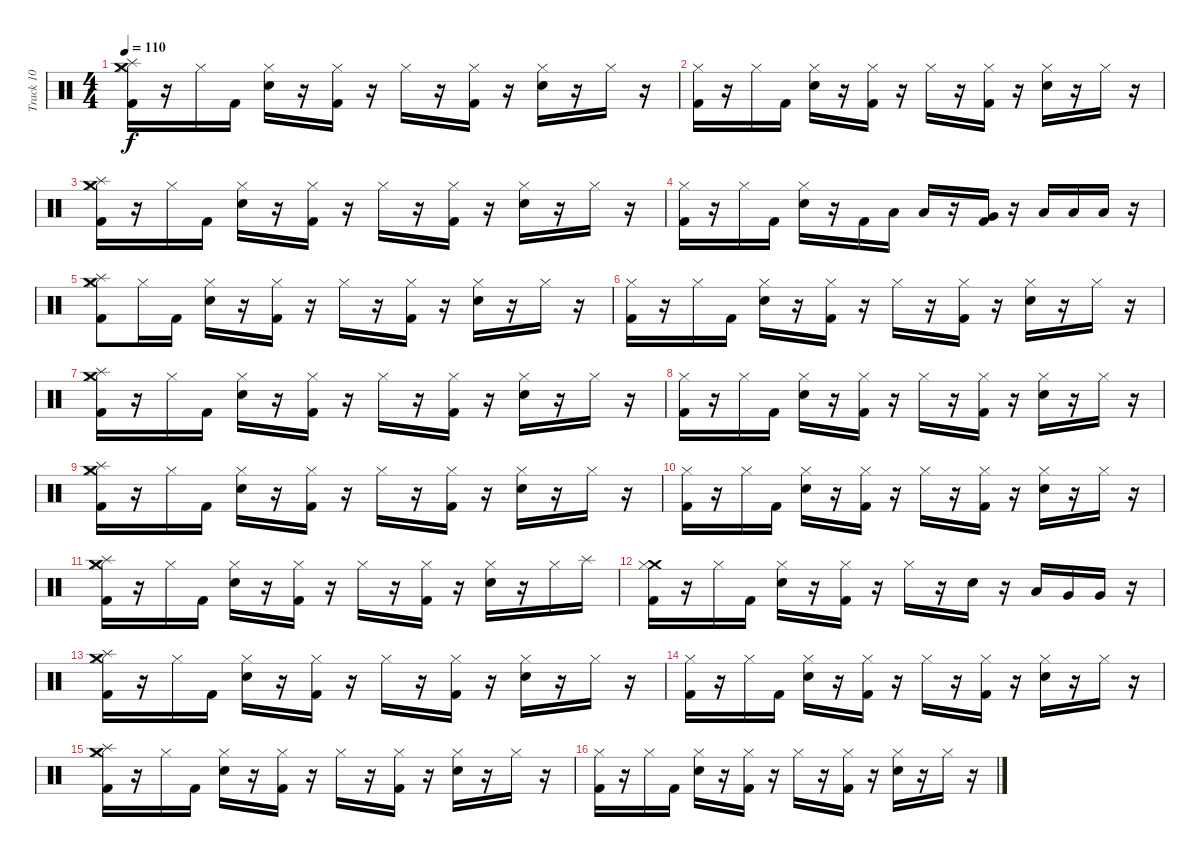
\track ("Track 10" "Track 10") {instrument percussion}
\staff {score}
\articulation defaults
\ts (4 4)
\tempo 110
\clef neutral
\ks c
("Kick (hit) 2" "Hi-Hat (closed)" "Splash (hit)" "Crash medium (hit)").16{dy f} r.16 "Hi-Hat (closed)".16 "Kick (hit) 2".16 ("Snare (hit) 2" "Hi-Hat (closed)").16 r.16 ("Kick (hit) 2" "Hi-Hat (closed)").16 r.16 "Hi-Hat (closed)".16 r.16 ("Kick (hit) 2" "Hi-Hat (closed)").16 r.16 ("Snare (hit) 2" "Hi-Hat (closed)").16 r.16 "Hi-Hat (closed)".16 r.16 |
("Kick (hit) 2" "Hi-Hat (closed)").16 r.16 "Hi-Hat (closed)".16 "Kick (hit) 2".16 ("Snare (hit) 2" "Hi-Hat (closed)").16 r.16 ("Kick (hit) 2" "Hi-Hat (closed)").16 r.16 "Hi-Hat (closed)".16 r.16 ("Kick (hit) 2" "Hi-Hat (closed)").16 r.16 ("Snare (hit) 2" "Hi-Hat (closed)").16 r.16 "Hi-Hat (closed)".16 r.16 |
("Kick (hit) 2" "Hi-Hat (closed)" "Splash (hit)" "Crash medium (hit)").16 r.16 "Hi-Hat (closed)".16 "Kick (hit) 2".16 ("Snare (hit) 2" "Hi-Hat (closed)").16 r.16 ("Kick (hit) 2" "Hi-Hat (closed)").16 r.16 "Hi-Hat (closed)".16 r.16 ("Kick (hit) 2" "Hi-Hat (closed)").16 r.16 ("Snare (hit) 2" "Hi-Hat (closed)").16 r.16 "Hi-Hat (closed)".16 r.16 |
("Kick (hit) 2" "Hi-Hat (closed)").16 r.16 "Hi-Hat (closed)".16 "Kick (hit) 2".16 ("Snare (hit) 2" "Hi-Hat (closed)").16 r.16 "Kick (hit) 2".16 "Low Tom (hit)".16 "Low Tom (hit)".16 r.16 ("Kick (hit) 2" "Very Low Tom (hit)").16 r.16 "Low Floor Tom (hit)".16 "Low Floor Tom (hit)".16 "Low Floor Tom (hit)".16 r.16 |
("Splash (hit)" "Crash medium (hit)" "Kick (hit) 2" "Hi-Hat (closed)").8 "Hi-Hat (closed)".16 "Kick (hit) 2".16 ("Snare (hit) 2" "Hi-Hat (closed)").16 r.16 ("Kick (hit) 2" "Hi-Hat (closed)").16 r.16 "Hi-Hat (closed)".16 r.16 ("Kick (hit) 2" "Hi-Hat (closed)").16 r.16 ("Snare (hit) 2" "Hi-Hat (closed)").16 r.16 "Hi-Hat (closed)".16 r.16 |
("Kick (hit) 2" "Hi-Hat (closed)").16 r.16 "Hi-Hat (closed)".16 "Kick (hit) 2".16 ("Snare (hit) 2" "Hi-Hat (closed)").16 r.16 ("Kick (hit) 2" "Hi-Hat (closed)").16 r.16 "Hi-Hat (closed)".16 r.16 ("Kick (hit) 2" "Hi-Hat (closed)").16 r.16 ("Snare (hit) 2" "Hi-Hat (closed)").16 r.16 "Hi-Hat (closed)".16 r.16 |
("Splash (hit)" "Crash medium (hit)" "Kick (hit) 2" "Hi-Hat (closed)").16 r.16 "Hi-Hat (closed)".16 "Kick (hit) 2".16 ("Snare (hit) 2" "Hi-Hat (closed)").16 r.16 ("Kick (hit) 2" "Hi-Hat (closed)").16 r.16 "Hi-Hat (closed)".16 r.16 ("Kick (hit) 2" "Hi-Hat (closed)").16 r.16 ("Snare (hit) 2" "Hi-Hat (closed)").16 r.16 "Hi-Hat (closed)".16 r.16 |
("Kick (hit) 2" "Hi-Hat (closed)").16 r.16 "Hi-Hat (closed)".16 "Kick (hit) 2".16 ("Snare (hit) 2" "Hi-Hat (closed)").16 r.16 ("Kick (hit) 2" "Hi-Hat (closed)").16 r.16 "Hi-Hat (closed)".16 r.16 ("Kick (hit) 2" "Hi-Hat (closed)").16 r.16 ("Snare (hit) 2" "Hi-Hat (closed)").16 r.16 "Hi-Hat (closed)".16 r.16 |
("Splash (hit)" "Crash medium (hit)" "Kick (hit) 2" "Hi-Hat (closed)").16 r.16 "Hi-Hat (closed)".16 "Kick (hit) 2".16 ("Snare (hit) 2" "Hi-Hat (closed)").16 r.16 ("Kick (hit) 2" "Hi-Hat (closed)").16 r.16 "Hi-Hat (closed)".16 r.16 ("Kick (hit) 2" "Hi-Hat (closed)").16 r.16 ("Hi-Hat (closed)" "Snare (hit) 2").16 r.16 "Hi-Hat (closed)".16 r.16 |
("Kick (hit) 2" "Hi-Hat (closed)").16 r.16 "Hi-Hat (closed)".16 "Kick (hit) 2".16 ("Snare (hit) 2" "Hi-Hat (closed)").16 r.16 ("Kick (hit) 2" "Hi-Hat (closed)").16 r.16 "Hi-Hat (closed)".16 r.16 ("Kick (hit) 2" "Hi-Hat (closed)").16 r.16 ("Snare (hit) 2" "Hi-Hat (closed)").16 r.16 "Hi-Hat (closed)".16 r.16 |
("Splash (hit)" "Crash medium (hit)" "Kick (hit) 2" "Hi-Hat (closed)").16 r.16 "Hi-Hat (closed)".16 "Kick (hit) 2".16 ("Snare (hit) 2" "Hi-Hat (closed)").16 r.16 ("Kick (hit) 2" "Hi-Hat (closed)").16 r.16 "Hi-Hat (closed)".16 r.16 ("Kick (hit) 2" "Hi-Hat (closed)").16 r.16 ("Snare (hit) 2" "Hi-Hat (closed)").16 r.16 "Hi-Hat (closed)".16 "Splash (hit)".16 |
("Crash medium (hit)" "Kick (hit) 2" "Hi-Hat (closed)").16 r.16 "Hi-Hat (closed)".16 "Kick (hit) 2".16 ("Hi-Hat (closed)" "Snare (hit) 2").16 r.16 ("Kick (hit) 2" "Hi-Hat (closed)").16 r.16 "Hi-Hat (closed)".16 r.16 "Snare (hit) 2".16 r.16 "Low Tom (hit)".16 "Very Low Tom (hit)".16 "Very Low Tom (hit)".16 r.16 |
("Splash (hit)" "Crash medium (hit)" "Kick (hit) 2" "Hi-Hat (closed)").16 r.16 "Hi-Hat (closed)".16 "Kick (hit) 2".16 ("Snare (hit) 2" "Hi-Hat (closed)").16 r.16 ("Kick (hit) 2" "Hi-Hat (closed)").16 r.16 "Hi-Hat (closed)".16 r.16 ("Kick (hit) 2" "Hi-Hat (closed)").16 r.16 ("Snare (hit) 2" "Hi-Hat (closed)").16 r.16 "Hi-Hat (closed)".16 r.16 |
("Kick (hit) 2" "Hi-Hat (closed)").16 r.16 "Hi-Hat (closed)".16 "Kick (hit) 2".16 ("Snare (hit) 2" "Hi-Hat (closed)").16 r.16 ("Kick (hit) 2" "Hi-Hat (closed)").16 r.16 "Hi-Hat (closed)".16 r.16 ("Kick (hit) 2" "Hi-Hat (closed)").16 r.16 ("Snare (hit) 2" "Hi-Hat (closed)").16 r.16 "Hi-Hat (closed)".16 r.16 |
("Hi-Hat (closed)" "Kick (hit) 2" "Splash (hit)" "Crash medium (hit)").16 r.16 "Hi-Hat (closed)".16 "Kick (hit) 2".16 ("Snare (hit) 2" "Hi-Hat (closed)").16 r.16 ("Hi-Hat (closed)" "Kick (hit) 2").16 r.16 "Hi-Hat (closed)".16 r.16 ("Hi-Hat (closed)" "Kick (hit) 2").16 r.16 ("Snare (hit) 2" "Hi-Hat (closed)").16 r.16 "Hi-Hat (closed)".16 r.16 |
("Hi-Hat (closed)" "Kick (hit) 2").16 r.16 "Hi-Hat (closed)".16 "Kick (hit) 2".16 ("Snare (hit) 2" "Hi-Hat (closed)").16 r.16 ("Hi-Hat (closed)" "Kick (hit) 2").16 r.16 "Hi-Hat (closed)".16 r.16 ("Hi-Hat (closed)" "Kick (hit) 2").16 r.16 ("Snare (hit) 2" "Hi-Hat (closed)").16 r.16 "Hi-Hat (closed)".16 r.16
